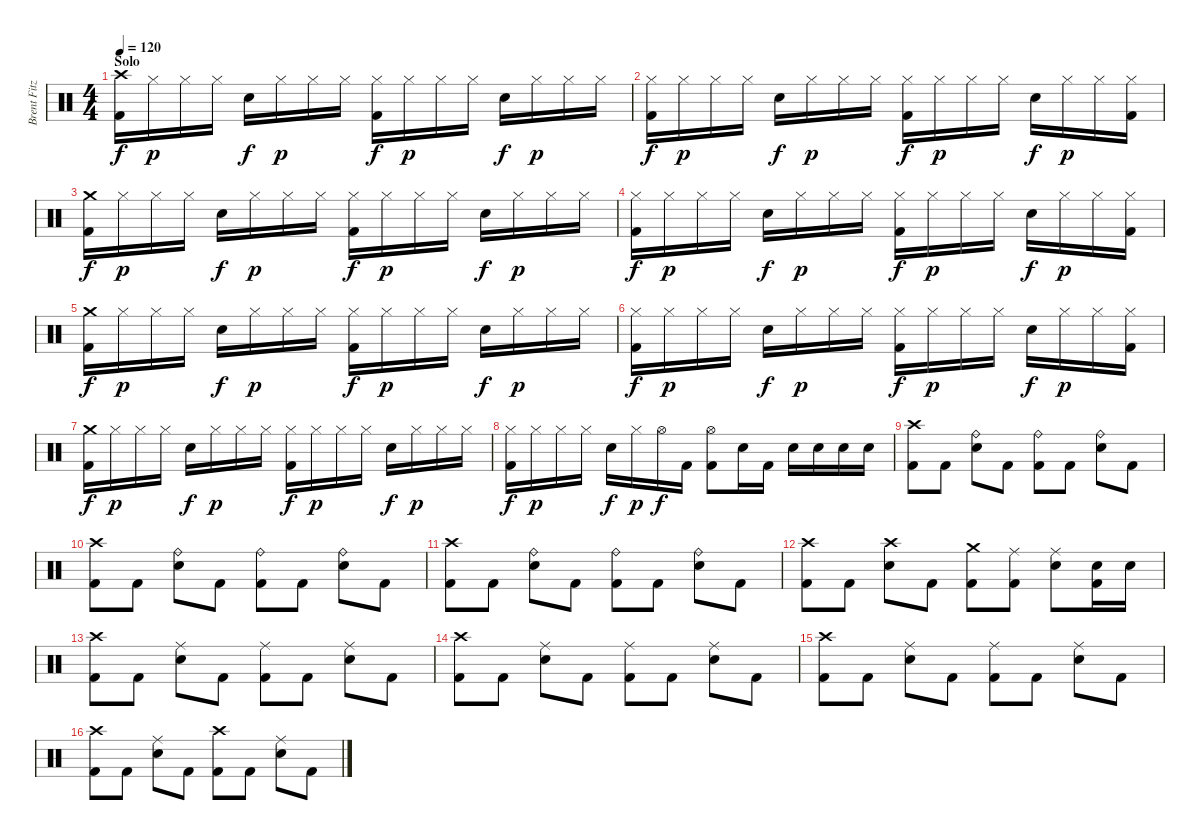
\track ("Brent Fitz" "Brent Fitz") {instrument percussion}
\staff {score}
\articulation defaults
\ts (4 4)
\section ("" "Solo")
\tempo 120
\clef neutral
\ks c
("Crash high (hit)" "Kick (hit) 2").16{dy f} "Hi-Hat (closed)".16{dy p} "Hi-Hat (closed)".16 "Hi-Hat (closed)".16 "Electric Snare (hit)".16{dy f} "Hi-Hat (closed)".16{dy p} "Hi-Hat (closed)".16 "Hi-Hat (closed)".16 ("Hi-Hat (closed)" "Kick (hit) 2").16{dy f} "Hi-Hat (closed)".16{dy p} "Hi-Hat (closed)".16 "Hi-Hat (closed)".16 "Electric Snare (hit)".16{dy f} "Hi-Hat (closed)".16{dy p} "Hi-Hat (closed)".16 "Hi-Hat (closed)".16 |
("Hi-Hat (closed)" "Kick (hit) 2").16{dy f} "Hi-Hat (closed)".16{dy p} "Hi-Hat (closed)".16 "Hi-Hat (closed)".16 "Electric Snare (hit)".16{dy f} "Hi-Hat (closed)".16{dy p} "Hi-Hat (closed)".16 "Hi-Hat (closed)".16 ("Hi-Hat (closed)" "Kick (hit) 2").16{dy f} "Hi-Hat (closed)".16{dy p} "Hi-Hat (closed)".16 "Hi-Hat (closed)".16 "Electric Snare (hit)".16{dy f} "Hi-Hat (closed)".16{dy p} "Hi-Hat (closed)".16 ("Hi-Hat (closed)" "Kick (hit) 2").16 |
("Crash medium (hit)" "Kick (hit) 2").16{dy f} "Hi-Hat (closed)".16{dy p} "Hi-Hat (closed)".16 "Hi-Hat (closed)".16 "Electric Snare (hit)".16{dy f} "Hi-Hat (closed)".16{dy p} "Hi-Hat (closed)".16 "Hi-Hat (closed)".16 ("Hi-Hat (closed)" "Kick (hit) 2").16{dy f} "Hi-Hat (closed)".16{dy p} "Hi-Hat (closed)".16 "Hi-Hat (closed)".16 "Electric Snare (hit)".16{dy f} "Hi-Hat (closed)".16{dy p} "Hi-Hat (closed)".16 "Hi-Hat (closed)".16 |
("Hi-Hat (closed)" "Kick (hit) 2").16{dy f} "Hi-Hat (closed)".16{dy p} "Hi-Hat (closed)".16 "Hi-Hat (closed)".16 "Electric Snare (hit)".16{dy f} "Hi-Hat (closed)".16{dy p} "Hi-Hat (closed)".16 "Hi-Hat (closed)".16 ("Hi-Hat (closed)" "Kick (hit) 2").16{dy f} "Hi-Hat (closed)".16{dy p} "Hi-Hat (closed)".16 "Hi-Hat (closed)".16 "Electric Snare (hit)".16{dy f} "Hi-Hat (closed)".16{dy p} "Hi-Hat (closed)".16 ("Hi-Hat (closed)" "Kick (hit) 2").16 |
("Crash medium (hit)" "Kick (hit) 2").16{dy f} "Hi-Hat (closed)".16{dy p} "Hi-Hat (closed)".16 "Hi-Hat (closed)".16 "Electric Snare (hit)".16{dy f} "Hi-Hat (closed)".16{dy p} "Hi-Hat (closed)".16 "Hi-Hat (closed)".16 ("Hi-Hat (closed)" "Kick (hit) 2").16{dy f} "Hi-Hat (closed)".16{dy p} "Hi-Hat (closed)".16 "Hi-Hat (closed)".16 "Electric Snare (hit)".16{dy f} "Hi-Hat (closed)".16{dy p} "Hi-Hat (closed)".16 "Hi-Hat (closed)".16 |
("Hi-Hat (closed)" "Kick (hit) 2").16{dy f} "Hi-Hat (closed)".16{dy p} "Hi-Hat (closed)".16 "Hi-Hat (closed)".16 "Electric Snare (hit)".16{dy f} "Hi-Hat (closed)".16{dy p} "Hi-Hat (closed)".16 "Hi-Hat (closed)".16 ("Hi-Hat (closed)" "Kick (hit) 2").16{dy f} "Hi-Hat (closed)".16{dy p} "Hi-Hat (closed)".16 "Hi-Hat (closed)".16 "Electric Snare (hit)".16{dy f} "Hi-Hat (closed)".16{dy p} "Hi-Hat (closed)".16 ("Hi-Hat (closed)" "Kick (hit) 2").16 |
("Crash medium (hit)" "Kick (hit) 2").16{dy f} "Hi-Hat (closed)".16{dy p} "Hi-Hat (closed)".16 "Hi-Hat (closed)".16 "Electric Snare (hit)".16{dy f} "Hi-Hat (closed)".16{dy p} "Hi-Hat (closed)".16 "Hi-Hat (closed)".16 ("Hi-Hat (closed)" "Kick (hit) 2").16{dy f} "Hi-Hat (closed)".16{dy p} "Hi-Hat (closed)".16 "Hi-Hat (closed)".16 "Electric Snare (hit)".16{dy f} "Hi-Hat (closed)".16{dy p} "Hi-Hat (closed)".16 "Hi-Hat (closed)".16 |
("Hi-Hat (closed)" "Kick (hit) 2").16{dy f} "Hi-Hat (closed)".16{dy p} "Hi-Hat (closed)".16 "Hi-Hat (closed)".16 "Electric Snare (hit)".16{dy f} "Hi-Hat (closed)".16{dy p} "Hi-Hat (open)".16{dy f} "Kick (hit) 2".16 ("Hi-Hat (open)" "Kick (hit) 2").8 "Electric Snare (hit)".16 "Kick (hit) 2".16 "Electric Snare (hit)".16 "Electric Snare (hit)".16 "Electric Snare (hit)".16 "Electric Snare (hit)".16 |
("Crash high (hit)" "Kick (hit) 2").8 "Kick (hit) 2".8 ("Ride (bell)" "Electric Snare (hit)").8 "Kick (hit) 2".8 ("Ride (bell)" "Kick (hit) 2").8 "Kick (hit) 2".8 ("Ride (bell)" "Electric Snare (hit)").8 "Kick (hit) 2".8 |
("Crash high (hit)" "Kick (hit) 2").8 "Kick (hit) 2".8 ("Ride (bell)" "Electric Snare (hit)").8 "Kick (hit) 2".8 ("Ride (bell)" "Kick (hit) 2").8 "Kick (hit) 2".8 ("Ride (bell)" "Electric Snare (hit)").8 "Kick (hit) 2".8 |
("Crash high (hit)" "Kick (hit) 2").8 "Kick (hit) 2".8 ("Ride (bell)" "Electric Snare (hit)").8 "Kick (hit) 2".8 ("Ride (bell)" "Kick (hit) 2").8 "Kick (hit) 2".8 ("Ride (bell)" "Electric Snare (hit)").8 "Kick (hit) 2".8 |
("Crash high (hit)" "Kick (hit) 2").8 "Kick (hit) 2".8 ("Crash high (hit)" "Electric Snare (hit)").8 "Kick (hit) 2".8 ("Crash medium (hit)" "Kick (hit) 2").8 ("Ride (middle)" "Kick (hit) 2").8 ("Ride (middle)" "Electric Snare (hit)").8 ("Electric Snare (hit)" "Kick (hit) 2").16 "Electric Snare (hit)".16 |
("Crash high (hit)" "Kick (hit) 2").8 "Kick (hit) 2".8 ("Ride (middle)" "Electric Snare (hit)").8 "Kick (hit) 2".8 ("Ride (middle)" "Kick (hit) 2").8 "Kick (hit) 2".8 ("Ride (middle)" "Electric Snare (hit)").8 "Kick (hit) 2".8 |
("Crash high (hit)" "Kick (hit) 2").8 "Kick (hit) 2".8 ("Ride (middle)" "Electric Snare (hit)").8 "Kick (hit) 2".8 ("Ride (middle)" "Kick (hit) 2").8 "Kick (hit) 2".8 ("Ride (middle)" "Electric Snare (hit)").8 "Kick (hit) 2".8 |
("Crash high (hit)" "Kick (hit) 2").8 "Kick (hit) 2".8 ("Ride (middle)" "Electric Snare (hit)").8 "Kick (hit) 2".8 ("Ride (middle)" "Kick (hit) 2").8 "Kick (hit) 2".8 ("Ride (middle)" "Electric Snare (hit)").8 "Kick (hit) 2".8 |
("Crash high (hit)" "Kick (hit) 2").8 "Kick (hit) 2".8 ("Ride (middle)" "Electric Snare (hit)").8 "Kick (hit) 2".8 ("Crash high (hit)" "Kick (hit) 2").8 "Kick (hit) 2".8 ("Ride (middle)" "Electric Snare (hit)").8 "Kick (hit) 2".8
